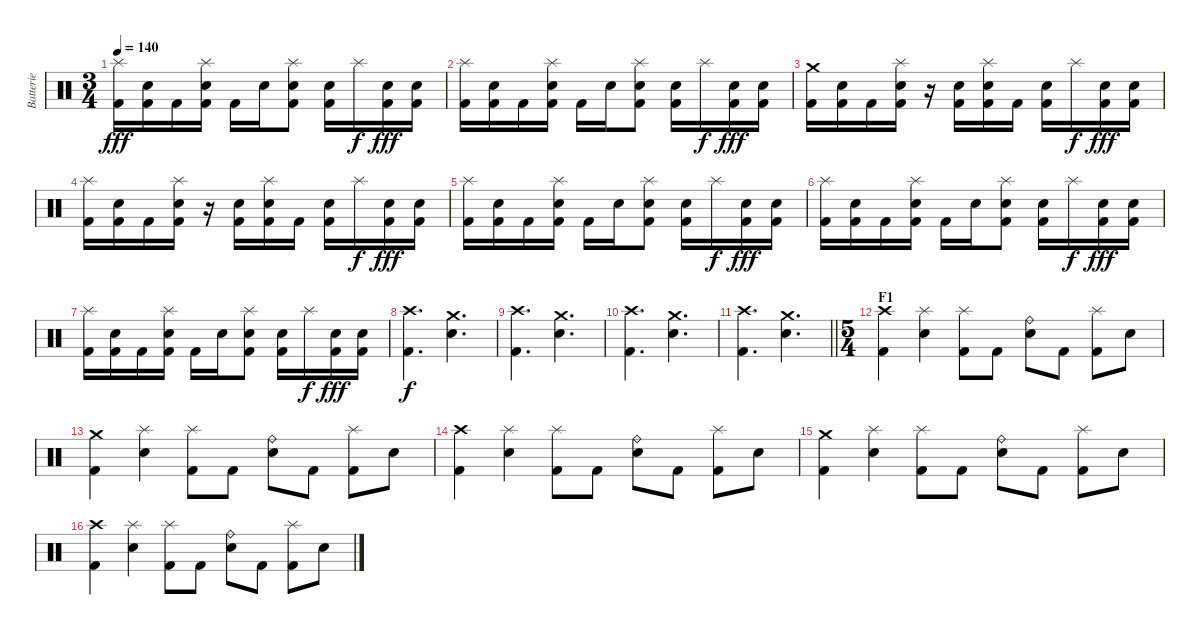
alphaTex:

\track ("Batterie" "Batterie") {instrument percussion}
\staff {score}
\articulation defaults
\ts (3 4)
\tempo 140
\clef neutral
\ks c
("Splash (hit)" "Kick (hit) 2").16{dy fff} ("Electric Snare (hit)" "Kick (hit) 2").16 "Kick (hit) 2".16 ("Splash (hit)" "Electric Snare (hit)" "Kick (hit) 2").16 "Kick (hit) 2".16 "Electric Snare (hit)".16 ("Splash (hit)" "Electric Snare (hit)" "Kick (hit) 2").8 ("Electric Snare (hit)" "Kick (hit) 2").16 "Splash (hit)".16{dy f} ("Electric Snare (hit)" "Kick (hit) 2").16{dy fff} ("Electric Snare (hit)" "Kick (hit) 2").16 |
("Splash (hit)" "Kick (hit) 2").16 ("Electric Snare (hit)" "Kick (hit) 2").16 "Kick (hit) 2".16 ("Splash (hit)" "Electric Snare (hit)" "Kick (hit) 2").16 "Kick (hit) 2".16 "Electric Snare (hit)".16 ("Splash (hit)" "Electric Snare (hit)" "Kick (hit) 2").8 ("Electric Snare (hit)" "Kick (hit) 2").16 "Splash (hit)".16{dy f} ("Electric Snare (hit)" "Kick (hit) 2").16{dy fff} ("Electric Snare (hit)" "Kick (hit) 2").16 |
("Crash medium (hit)" "Kick (hit) 2").16 ("Electric Snare (hit)" "Kick (hit) 2").16 "Kick (hit) 2".16 ("Splash (hit)" "Electric Snare (hit)" "Kick (hit) 2").16 r.16 ("Electric Snare (hit)" "Kick (hit) 2").16 ("Splash (hit)" "Electric Snare (hit)" "Kick (hit) 2").16 "Kick (hit) 2".16 ("Electric Snare (hit)" "Kick (hit) 2").16 "Splash (hit)".16{dy f} ("Electric Snare (hit)" "Kick (hit) 2").16{dy fff} ("Electric Snare (hit)" "Kick (hit) 2").16 |
("Splash (hit)" "Kick (hit) 2").16 ("Electric Snare (hit)" "Kick (hit) 2").16 "Kick (hit) 2".16 ("Splash (hit)" "Electric Snare (hit)" "Kick (hit) 2").16 r.16 ("Electric Snare (hit)" "Kick (hit) 2").16 ("Splash (hit)" "Electric Snare (hit)" "Kick (hit) 2").16 "Kick (hit) 2".16 ("Electric Snare (hit)" "Kick (hit) 2").16 "Splash (hit)".16{dy f} ("Electric Snare (hit)" "Kick (hit) 2").16{dy fff} ("Electric Snare (hit)" "Kick (hit) 2").16 |
("Splash (hit)" "Kick (hit) 2").16 ("Electric Snare (hit)" "Kick (hit) 2").16 "Kick (hit) 2".16 ("Splash (hit)" "Electric Snare (hit)" "Kick (hit) 2").16 "Kick (hit) 2".16 "Electric Snare (hit)".16 ("Splash (hit)" "Electric Snare (hit)" "Kick (hit) 2").8 ("Electric Snare (hit)" "Kick (hit) 2").16 "Splash (hit)".16{dy f} ("Electric Snare (hit)" "Kick (hit) 2").16{dy fff} ("Electric Snare (hit)" "Kick (hit) 2").16 |
("Splash (hit)" "Kick (hit) 2").16 ("Electric Snare (hit)" "Kick (hit) 2").16 "Kick (hit) 2".16 ("Splash (hit)" "Electric Snare (hit)" "Kick (hit) 2").16 "Kick (hit) 2".16 "Electric Snare (hit)".16 ("Splash (hit)" "Electric Snare (hit)" "Kick (hit) 2").8 ("Electric Snare (hit)" "Kick (hit) 2").16 "Splash (hit)".16{dy f} ("Electric Snare (hit)" "Kick (hit) 2").16{dy fff} ("Electric Snare (hit)" "Kick (hit) 2").16 |
("Splash (hit)" "Kick (hit) 2").16 ("Electric Snare (hit)" "Kick (hit) 2").16 "Kick (hit) 2".16 ("Splash (hit)" "Electric Snare (hit)" "Kick (hit) 2").16 "Kick (hit) 2".16 "Electric Snare (hit)".16 ("Splash (hit)" "Electric Snare (hit)" "Kick (hit) 2").8 ("Electric Snare (hit)" "Kick (hit) 2").16 "Splash (hit)".16{dy f} ("Electric Snare (hit)" "Kick (hit) 2").16{dy fff} ("Electric Snare (hit)" "Kick (hit) 2").16 |
("Crash high (hit)" "Kick (hit) 2").4{d dy f} ("Crash medium (hit)" "Electric Snare (hit)").4{d} |
("Crash high (hit)" "Kick (hit) 2").4{d} ("Crash medium (hit)" "Electric Snare (hit)").4{d} |
("Crash high (hit)" "Kick (hit) 2").4{d} ("Crash medium (hit)" "Electric Snare (hit)").4{d} |
\barLineRight lightlight
("Crash high (hit)" "Kick (hit) 2").4{d} ("Crash medium (hit)" "Electric Snare (hit)").4{d} |
\ts (5 4)
\section ("" "F1")
("Crash high (hit)" "Kick (hit) 2").4 ("Splash (hit)" "Electric Snare (hit)").4 ("Splash (hit)" "Kick (hit) 2").8 "Kick (hit) 2".8 ("Ride (bell)" "Electric Snare (hit)").8 "Kick (hit) 2".8 ("Splash (hit)" "Kick (hit) 2").8 "Electric Snare (hit)".8 |
("Crash medium (hit)" "Kick (hit) 2").4 ("Splash (hit)" "Electric Snare (hit)").4 ("Splash (hit)" "Kick (hit) 2").8 "Kick (hit) 2".8 ("Ride (bell)" "Electric Snare (hit)").8 "Kick (hit) 2".8 ("Splash (hit)" "Kick (hit) 2").8 "Electric Snare (hit)".8 |
("Crash high (hit)" "Kick (hit) 2").4 ("Splash (hit)" "Electric Snare (hit)").4 ("Splash (hit)" "Kick (hit) 2").8 "Kick (hit) 2".8 ("Ride (bell)" "Electric Snare (hit)").8 "Kick (hit) 2".8 ("Splash (hit)" "Kick (hit) 2").8 "Electric Snare (hit)".8 |
("Crash medium (hit)" "Kick (hit) 2").4 ("Splash (hit)" "Electric Snare (hit)").4 ("Splash (hit)" "Kick (hit) 2").8 "Kick (hit) 2".8 ("Ride (bell)" "Electric Snare (hit)").8 "Kick (hit) 2".8 ("Splash (hit)" "Kick (hit) 2").8 "Electric Snare (hit)".8 |
("Crash high (hit)" "Kick (hit) 2").4 ("Splash (hit)" "Electric Snare (hit)").4 ("Splash (hit)" "Kick (hit) 2").8 "Kick (hit) 2".8 ("Ride (bell)" "Electric Snare (hit)").8 "Kick (hit) 2".8 ("Splash (hit)" "Kick (hit) 2").8 "Electric Snare (hit)".8
